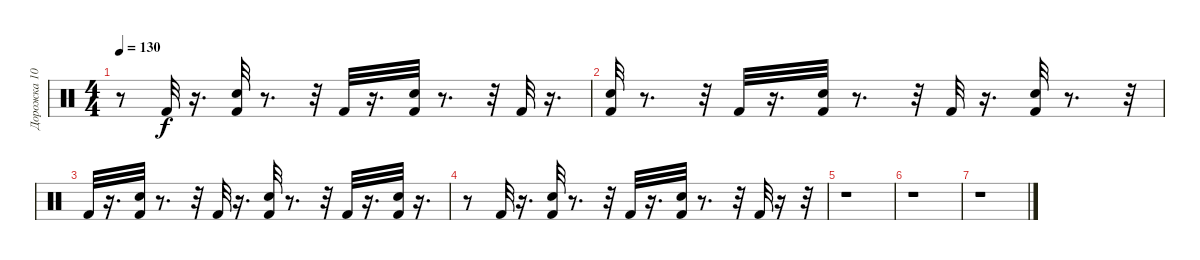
\track ("Дорожка 10" "Дорожка 10") {instrument percussion}
\staff {score}
\articulation defaults
\ts (4 4)
\tempo 130
\clef neutral
\ks c
r.8{dy f} "Kick (hit) 2".32 r.16{d} ("Snare (hit)" "Kick (hit) 2").32 r.8{d} r.32 "Kick (hit) 2".32 r.16{d} ("Snare (hit)" "Kick (hit) 2").32 r.8{d} r.32 "Kick (hit) 2".32 r.16{d} |
("Snare (hit)" "Kick (hit) 2").32 r.8{d} r.32 "Kick (hit) 2".32 r.16{d} ("Snare (hit)" "Kick (hit) 2").32 r.8{d} r.32 "Kick (hit) 2".32 r.16{d} ("Snare (hit)" "Kick (hit) 2").32 r.8{d} r.32 |
"Kick (hit) 2".32 r.16{d} ("Snare (hit)" "Kick (hit) 2").32 r.8{d} r.32 "Kick (hit) 2".32 r.16{d} ("Snare (hit)" "Kick (hit) 2").32 r.8{d} r.32 "Kick (hit) 2".32 r.16{d} ("Snare (hit)" "Kick (hit) 2").32 r.16{d} |
r.8 "Kick (hit) 2".32 r.16{d} ("Snare (hit)" "Kick (hit) 2").32 r.8{d} r.32 "Kick (hit) 2".32 r.16{d} ("Snare (hit)" "Kick (hit) 2").32 r.8{d} r.32 "Kick (hit) 2".32 r.16 r.32 |
r.1 |
r.1 |
r.1
